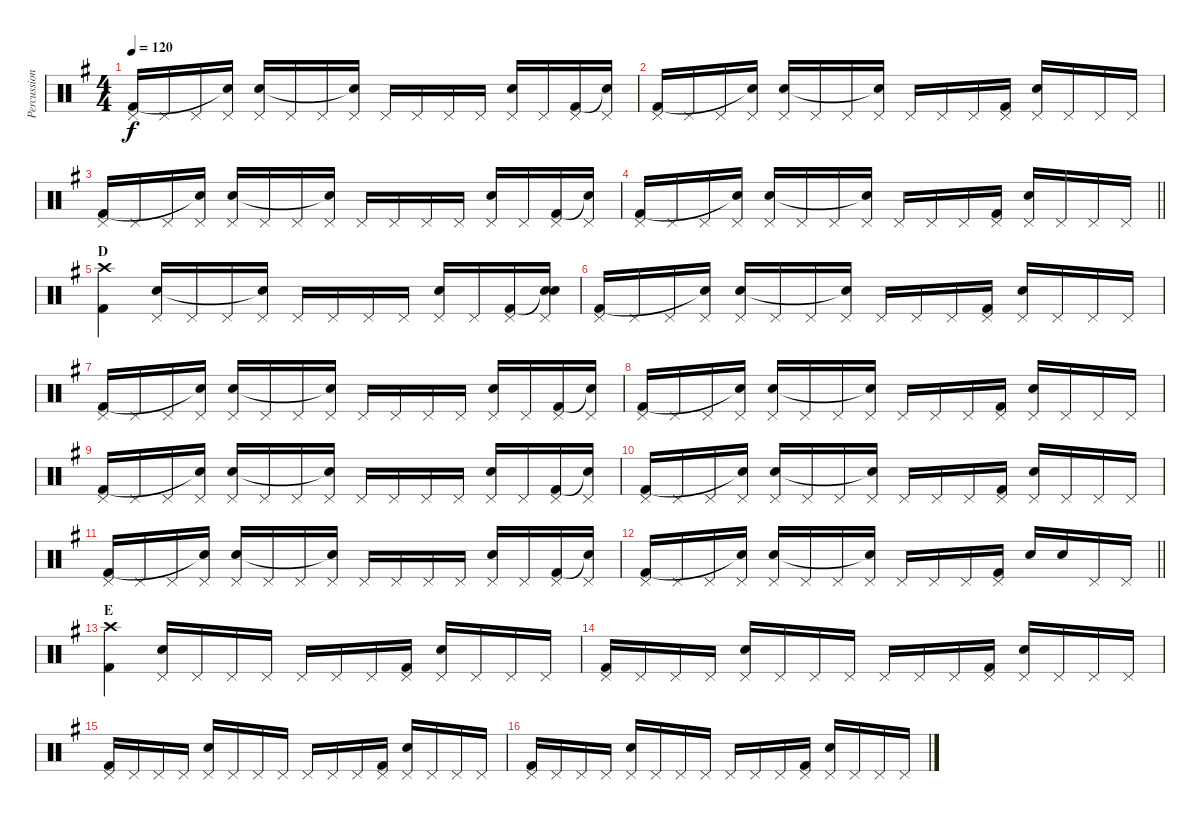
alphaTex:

\track ("Percussion" "Percussion") {instrument percussion}
\staff {score}
\articulation defaults
\ts (4 4)
\tempo 120
\clef neutral
\ks g
("Pedal Hi-Hat (hit)" "Kick (hit) 2").16{dy f} "Pedal Hi-Hat (hit)".16 "Pedal Hi-Hat (hit)".16 ("Pedal Hi-Hat (hit)" "Snare (hit)"{t}).16 ("Pedal Hi-Hat (hit)" "Electric Snare (hit)").16 "Pedal Hi-Hat (hit)".16 "Pedal Hi-Hat (hit)".16 ("Pedal Hi-Hat (hit)" "Snare (hit)"{t}).16 "Pedal Hi-Hat (hit)".16 "Pedal Hi-Hat (hit)".16 "Pedal Hi-Hat (hit)".16 "Pedal Hi-Hat (hit)".16 ("Pedal Hi-Hat (hit)" "Electric Snare (hit)").16 "Pedal Hi-Hat (hit)".16 ("Pedal Hi-Hat (hit)" "Kick (hit) 2").16 ("Pedal Hi-Hat (hit)" "Snare (hit)"{t}).16 |
("Pedal Hi-Hat (hit)" "Kick (hit) 2").16 "Pedal Hi-Hat (hit)".16 "Pedal Hi-Hat (hit)".16 ("Pedal Hi-Hat (hit)" "Snare (hit)"{t}).16 ("Pedal Hi-Hat (hit)" "Electric Snare (hit)").16 "Pedal Hi-Hat (hit)".16 "Pedal Hi-Hat (hit)".16 ("Pedal Hi-Hat (hit)" "Snare (hit)"{t}).16 "Pedal Hi-Hat (hit)".16 "Pedal Hi-Hat (hit)".16 "Pedal Hi-Hat (hit)".16 ("Pedal Hi-Hat (hit)" "Kick (hit) 2").16 ("Pedal Hi-Hat (hit)" "Electric Snare (hit)").16 "Pedal Hi-Hat (hit)".16 "Pedal Hi-Hat (hit)".16 "Pedal Hi-Hat (hit)".16 |
("Pedal Hi-Hat (hit)" "Kick (hit) 2").16 "Pedal Hi-Hat (hit)".16 "Pedal Hi-Hat (hit)".16 ("Pedal Hi-Hat (hit)" "Snare (hit)"{t}).16 ("Pedal Hi-Hat (hit)" "Electric Snare (hit)").16 "Pedal Hi-Hat (hit)".16 "Pedal Hi-Hat (hit)".16 ("Pedal Hi-Hat (hit)" "Snare (hit)"{t}).16 "Pedal Hi-Hat (hit)".16 "Pedal Hi-Hat (hit)".16 "Pedal Hi-Hat (hit)".16 "Pedal Hi-Hat (hit)".16 ("Pedal Hi-Hat (hit)" "Electric Snare (hit)").16 "Pedal Hi-Hat (hit)".16 ("Pedal Hi-Hat (hit)" "Kick (hit) 2").16 ("Pedal Hi-Hat (hit)" "Snare (hit)"{t}).16 |
\barLineRight lightlight
("Pedal Hi-Hat (hit)" "Kick (hit) 2").16 "Pedal Hi-Hat (hit)".16 "Pedal Hi-Hat (hit)".16 ("Pedal Hi-Hat (hit)" "Snare (hit)"{t}).16 ("Pedal Hi-Hat (hit)" "Electric Snare (hit)").16 "Pedal Hi-Hat (hit)".16 "Pedal Hi-Hat (hit)".16 ("Pedal Hi-Hat (hit)" "Snare (hit)"{t}).16 "Pedal Hi-Hat (hit)".16 "Pedal Hi-Hat (hit)".16 "Pedal Hi-Hat (hit)".16 ("Pedal Hi-Hat (hit)" "Kick (hit) 2").16 ("Pedal Hi-Hat (hit)" "Electric Snare (hit)").16 "Pedal Hi-Hat (hit)".16 "Pedal Hi-Hat (hit)".16 "Pedal Hi-Hat (hit)".16 |
\section ("" "D")
("Crash high (hit)" "Kick (hit) 2").4 ("Pedal Hi-Hat (hit)" "Electric Snare (hit)").16 "Pedal Hi-Hat (hit)".16 "Pedal Hi-Hat (hit)".16 ("Pedal Hi-Hat (hit)" "Snare (hit)"{t}).16 "Pedal Hi-Hat (hit)".16 "Pedal Hi-Hat (hit)".16 "Pedal Hi-Hat (hit)".16 "Pedal Hi-Hat (hit)".16 ("Pedal Hi-Hat (hit)" "Electric Snare (hit)").16 "Pedal Hi-Hat (hit)".16 ("Pedal Hi-Hat (hit)" "Kick (hit) 2").16 ("Pedal Hi-Hat (hit)" "Snare (hit)"{t} "Snare (hit)").16 |
("Pedal Hi-Hat (hit)" "Kick (hit) 2").16 "Pedal Hi-Hat (hit)".16 "Pedal Hi-Hat (hit)".16 ("Pedal Hi-Hat (hit)" "Snare (hit)"{t}).16 ("Pedal Hi-Hat (hit)" "Electric Snare (hit)").16 "Pedal Hi-Hat (hit)".16 "Pedal Hi-Hat (hit)".16 ("Pedal Hi-Hat (hit)" "Snare (hit)"{t}).16 "Pedal Hi-Hat (hit)".16 "Pedal Hi-Hat (hit)".16 "Pedal Hi-Hat (hit)".16 ("Pedal Hi-Hat (hit)" "Kick (hit) 2").16 ("Pedal Hi-Hat (hit)" "Electric Snare (hit)").16 "Pedal Hi-Hat (hit)".16 "Pedal Hi-Hat (hit)".16 "Pedal Hi-Hat (hit)".16 |
("Pedal Hi-Hat (hit)" "Kick (hit) 2").16 "Pedal Hi-Hat (hit)".16 "Pedal Hi-Hat (hit)".16 ("Pedal Hi-Hat (hit)" "Snare (hit)"{t}).16 ("Pedal Hi-Hat (hit)" "Electric Snare (hit)").16 "Pedal Hi-Hat (hit)".16 "Pedal Hi-Hat (hit)".16 ("Pedal Hi-Hat (hit)" "Snare (hit)"{t}).16 "Pedal Hi-Hat (hit)".16 "Pedal Hi-Hat (hit)".16 "Pedal Hi-Hat (hit)".16 "Pedal Hi-Hat (hit)".16 ("Pedal Hi-Hat (hit)" "Electric Snare (hit)").16 "Pedal Hi-Hat (hit)".16 ("Pedal Hi-Hat (hit)" "Kick (hit) 2").16 ("Pedal Hi-Hat (hit)" "Snare (hit)"{t}).16 |
("Pedal Hi-Hat (hit)" "Kick (hit) 2").16 "Pedal Hi-Hat (hit)".16 "Pedal Hi-Hat (hit)".16 ("Pedal Hi-Hat (hit)" "Snare (hit)"{t}).16 ("Pedal Hi-Hat (hit)" "Electric Snare (hit)").16 "Pedal Hi-Hat (hit)".16 "Pedal Hi-Hat (hit)".16 ("Pedal Hi-Hat (hit)" "Snare (hit)"{t}).16 "Pedal Hi-Hat (hit)".16 "Pedal Hi-Hat (hit)".16 "Pedal Hi-Hat (hit)".16 ("Pedal Hi-Hat (hit)" "Kick (hit) 2").16 ("Pedal Hi-Hat (hit)" "Electric Snare (hit)").16 "Pedal Hi-Hat (hit)".16 "Pedal Hi-Hat (hit)".16 "Pedal Hi-Hat (hit)".16 |
("Pedal Hi-Hat (hit)" "Kick (hit) 2").16 "Pedal Hi-Hat (hit)".16 "Pedal Hi-Hat (hit)".16 ("Pedal Hi-Hat (hit)" "Snare (hit)"{t}).16 ("Pedal Hi-Hat (hit)" "Electric Snare (hit)").16 "Pedal Hi-Hat (hit)".16 "Pedal Hi-Hat (hit)".16 ("Pedal Hi-Hat (hit)" "Snare (hit)"{t}).16 "Pedal Hi-Hat (hit)".16 "Pedal Hi-Hat (hit)".16 "Pedal Hi-Hat (hit)".16 "Pedal Hi-Hat (hit)".16 ("Pedal Hi-Hat (hit)" "Electric Snare (hit)").16 "Pedal Hi-Hat (hit)".16 ("Pedal Hi-Hat (hit)" "Kick (hit) 2").16 ("Pedal Hi-Hat (hit)" "Snare (hit)"{t}).16 |
("Pedal Hi-Hat (hit)" "Kick (hit) 2").16 "Pedal Hi-Hat (hit)".16 "Pedal Hi-Hat (hit)".16 ("Pedal Hi-Hat (hit)" "Snare (hit)"{t}).16 ("Pedal Hi-Hat (hit)" "Electric Snare (hit)").16 "Pedal Hi-Hat (hit)".16 "Pedal Hi-Hat (hit)".16 ("Pedal Hi-Hat (hit)" "Snare (hit)"{t}).16 "Pedal Hi-Hat (hit)".16 "Pedal Hi-Hat (hit)".16 "Pedal Hi-Hat (hit)".16 ("Pedal Hi-Hat (hit)" "Kick (hit) 2").16 ("Pedal Hi-Hat (hit)" "Electric Snare (hit)").16 "Pedal Hi-Hat (hit)".16 "Pedal Hi-Hat (hit)".16 "Pedal Hi-Hat (hit)".16 |
("Pedal Hi-Hat (hit)" "Kick (hit) 2").16 "Pedal Hi-Hat (hit)".16 "Pedal Hi-Hat (hit)".16 ("Pedal Hi-Hat (hit)" "Snare (hit)"{t}).16 ("Pedal Hi-Hat (hit)" "Electric Snare (hit)").16 "Pedal Hi-Hat (hit)".16 "Pedal Hi-Hat (hit)".16 ("Pedal Hi-Hat (hit)" "Snare (hit)"{t}).16 "Pedal Hi-Hat (hit)".16 "Pedal Hi-Hat (hit)".16 "Pedal Hi-Hat (hit)".16 "Pedal Hi-Hat (hit)".16 ("Pedal Hi-Hat (hit)" "Electric Snare (hit)").16 "Pedal Hi-Hat (hit)".16 ("Pedal Hi-Hat (hit)" "Kick (hit) 2").16 ("Pedal Hi-Hat (hit)" "Snare (hit)"{t}).16 |
\barLineRight lightlight
("Pedal Hi-Hat (hit)" "Kick (hit) 2").16 "Pedal Hi-Hat (hit)".16 "Pedal Hi-Hat (hit)".16 ("Pedal Hi-Hat (hit)" "Snare (hit)"{t}).16 ("Pedal Hi-Hat (hit)" "Electric Snare (hit)").16 "Pedal Hi-Hat (hit)".16 "Pedal Hi-Hat (hit)".16 ("Pedal Hi-Hat (hit)" "Snare (hit)"{t}).16 "Pedal Hi-Hat (hit)".16 "Pedal Hi-Hat (hit)".16 "Pedal Hi-Hat (hit)".16 ("Pedal Hi-Hat (hit)" "Kick (hit) 2").16 "Electric Snare (hit)".16 "Electric Snare (hit)".16 "Pedal Hi-Hat (hit)".16 "Pedal Hi-Hat (hit)".16 |
\section ("" "E")
("Crash high (hit)" "Kick (hit) 2").4 ("Pedal Hi-Hat (hit)" "Electric Snare (hit)").16 "Pedal Hi-Hat (hit)".16 "Pedal Hi-Hat (hit)".16 "Pedal Hi-Hat (hit)".16 "Pedal Hi-Hat (hit)".16 "Pedal Hi-Hat (hit)".16 "Pedal Hi-Hat (hit)".16 ("Pedal Hi-Hat (hit)" "Kick (hit) 2").16 ("Pedal Hi-Hat (hit)" "Electric Snare (hit)").16 "Pedal Hi-Hat (hit)".16 "Pedal Hi-Hat (hit)".16 "Pedal Hi-Hat (hit)".16 |
("Pedal Hi-Hat (hit)" "Kick (hit) 2").16 "Pedal Hi-Hat (hit)".16 "Pedal Hi-Hat (hit)".16 "Pedal Hi-Hat (hit)".16 ("Pedal Hi-Hat (hit)" "Electric Snare (hit)").16 "Pedal Hi-Hat (hit)".16 "Pedal Hi-Hat (hit)".16 "Pedal Hi-Hat (hit)".16 "Pedal Hi-Hat (hit)".16 "Pedal Hi-Hat (hit)".16 "Pedal Hi-Hat (hit)".16 ("Pedal Hi-Hat (hit)" "Kick (hit) 2").16 ("Pedal Hi-Hat (hit)" "Electric Snare (hit)").16 "Pedal Hi-Hat (hit)".16 "Pedal Hi-Hat (hit)".16 "Pedal Hi-Hat (hit)".16 |
("Pedal Hi-Hat (hit)" "Kick (hit) 2").16 "Pedal Hi-Hat (hit)".16 "Pedal Hi-Hat (hit)".16 "Pedal Hi-Hat (hit)".16 ("Pedal Hi-Hat (hit)" "Electric Snare (hit)").16 "Pedal Hi-Hat (hit)".16 "Pedal Hi-Hat (hit)".16 "Pedal Hi-Hat (hit)".16 "Pedal Hi-Hat (hit)".16 "Pedal Hi-Hat (hit)".16 "Pedal Hi-Hat (hit)".16 ("Pedal Hi-Hat (hit)" "Kick (hit) 2").16 ("Pedal Hi-Hat (hit)" "Electric Snare (hit)").16 "Pedal Hi-Hat (hit)".16 "Pedal Hi-Hat (hit)".16 "Pedal Hi-Hat (hit)".16 |
("Pedal Hi-Hat (hit)" "Kick (hit) 2").16 "Pedal Hi-Hat (hit)".16 "Pedal Hi-Hat (hit)".16 "Pedal Hi-Hat (hit)".16 ("Pedal Hi-Hat (hit)" "Electric Snare (hit)").16 "Pedal Hi-Hat (hit)".16 "Pedal Hi-Hat (hit)".16 "Pedal Hi-Hat (hit)".16 "Pedal Hi-Hat (hit)".16 "Pedal Hi-Hat (hit)".16 "Pedal Hi-Hat (hit)".16 ("Pedal Hi-Hat (hit)" "Kick (hit) 2").16 ("Pedal Hi-Hat (hit)" "Electric Snare (hit)").16 "Pedal Hi-Hat (hit)".16 "Pedal Hi-Hat (hit)".16 "Pedal Hi-Hat (hit)".16
